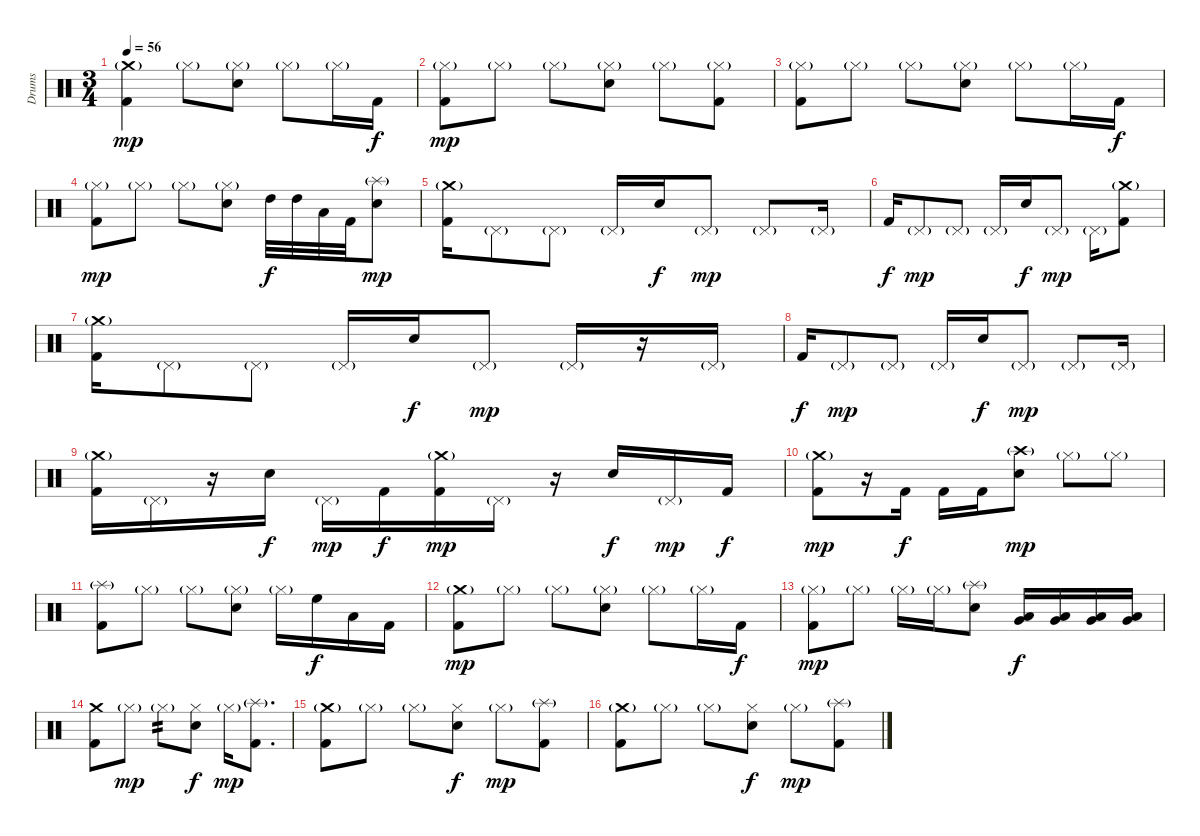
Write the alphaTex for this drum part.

\track ("Drums" "Drums") {instrument percussion}
\staff {score}
\articulation defaults
\ts (3 4)
\tempo 56
\clef neutral
\ks c
("Crash medium (hit)"{g} "Kick (hit) 2").4{dy mp} "Hi-Hat (closed)"{g}.8 ("Hi-Hat (closed)"{g} "Electric Snare (hit)").8 "Hi-Hat (closed)"{g}.8 "Hi-Hat (closed)"{g}.16 "Kick (hit) 2".16{dy f} |
("Hi-Hat (closed)"{g} "Kick (hit) 2").8{dy mp} "Hi-Hat (closed)"{g}.8 "Hi-Hat (closed)"{g}.8 ("Hi-Hat (closed)"{g} "Electric Snare (hit)").8 "Hi-Hat (closed)"{g}.8 ("Hi-Hat (closed)"{g} "Kick (hit) 2").8 |
("Hi-Hat (closed)"{g} "Kick (hit) 2").8 "Hi-Hat (closed)"{g}.8 "Hi-Hat (closed)"{g}.8 ("Hi-Hat (closed)"{g} "Electric Snare (hit)").8 "Hi-Hat (closed)"{g}.8 "Hi-Hat (closed)"{g}.16 "Kick (hit) 2".16{dy f} |
("Hi-Hat (closed)"{g} "Kick (hit) 2").8{dy mp} "Hi-Hat (closed)"{g}.8 "Hi-Hat (closed)"{g}.8 ("Hi-Hat (closed)"{g} "Electric Snare (hit)").8 "High Tom (hit)".32{dy f} "High Tom (hit)".32 "Low Tom (hit)".32 "Kick (hit) 2".32 ("Splash (hit)"{g} "Electric Snare (hit)").8{dy mp} |
("Crash medium (hit)"{g} "Kick (hit) 2").16 "Pedal Hi-Hat (hit)"{g}.8 "Pedal Hi-Hat (hit)"{g}.8 "Pedal Hi-Hat (hit)"{g}.16 "Electric Snare (hit)".16{dy f} "Pedal Hi-Hat (hit)"{g}.8{dy mp} "Pedal Hi-Hat (hit)"{g}.8 "Pedal Hi-Hat (hit)"{g}.16 |
"Kick (hit) 2".16{dy f} "Pedal Hi-Hat (hit)"{g}.8{dy mp} "Pedal Hi-Hat (hit)"{g}.8 "Pedal Hi-Hat (hit)"{g}.16 "Electric Snare (hit)".16{dy f} "Pedal Hi-Hat (hit)"{g}.8{dy mp} "Pedal Hi-Hat (hit)"{g}.16 ("Crash medium (hit)"{g} "Kick (hit) 2").8 |
("Crash medium (hit)"{g} "Kick (hit) 2").16 "Pedal Hi-Hat (hit)"{g}.8 "Pedal Hi-Hat (hit)"{g}.8 "Pedal Hi-Hat (hit)"{g}.16 "Electric Snare (hit)".16{dy f} "Pedal Hi-Hat (hit)"{g}.8{dy mp} "Pedal Hi-Hat (hit)"{g}.16 r.16 "Pedal Hi-Hat (hit)"{g}.16 |
"Kick (hit) 2".16{dy f} "Pedal Hi-Hat (hit)"{g}.8{dy mp} "Pedal Hi-Hat (hit)"{g}.8 "Pedal Hi-Hat (hit)"{g}.16 "Electric Snare (hit)".16{dy f} "Pedal Hi-Hat (hit)"{g}.8{dy mp} "Pedal Hi-Hat (hit)"{g}.8 "Pedal Hi-Hat (hit)"{g}.16 |
("Crash medium (hit)"{g} "Kick (hit) 2").16 "Pedal Hi-Hat (hit)"{g}.16 r.16 "Electric Snare (hit)".16{dy f} "Pedal Hi-Hat (hit)"{g}.16{dy mp} "Kick (hit) 2".16{dy f} ("Crash medium (hit)"{g} "Kick (hit) 2").16{dy mp} "Pedal Hi-Hat (hit)"{g}.16 r.16 "Electric Snare (hit)".16{dy f} "Pedal Hi-Hat (hit)"{g}.16{dy mp} "Kick (hit) 2".16{dy f} |
("Crash medium (hit)"{g} "Kick (hit) 2").8{dy mp} r.16 "Kick (hit) 2".16{dy f} "Kick (hit) 2".16 "Kick (hit) 2".16 ("Crash high (hit)"{g} "Electric Snare (hit)").8{dy mp} "Hi-Hat (closed)"{g}.8 "Hi-Hat (closed)"{g}.8 |
("Splash (hit)"{g} "Kick (hit) 2").8 "Hi-Hat (closed)"{g}.8 "Hi-Hat (closed)"{g}.8 ("Hi-Hat (closed)"{g} "Electric Snare (hit)").8 "Hi-Hat (closed)"{g}.16 "High Floor Tom (hit)".16{dy f} "Low Tom (hit)".16 "Kick (hit) 2".16 |
("Crash medium (hit)"{g} "Kick (hit) 2").8{dy mp} "Hi-Hat (closed)"{g}.8 "Hi-Hat (closed)"{g}.8 ("Hi-Hat (closed)"{g} "Electric Snare (hit)").8 "Hi-Hat (closed)"{g}.8 "Hi-Hat (closed)"{g}.16 "Kick (hit) 2".16{dy f} |
("Hi-Hat (closed)"{g} "Kick (hit) 2").8{dy mp} "Hi-Hat (closed)"{g}.8 "Hi-Hat (closed)"{g}.16 "Hi-Hat (closed)"{g}.16 ("Splash (hit)"{g} "Electric Snare (hit)").8 ("Low Tom (hit)" "Very Low Tom (hit)").16{dy f} ("Low Tom (hit)" "Very Low Tom (hit)").16 ("Low Tom (hit)" "Very Low Tom (hit)").16 ("Low Tom (hit)" "Very Low Tom (hit)").16 |
("Crash medium (hit)" "Kick (hit) 2").8 "Hi-Hat (closed)"{g}.8{dy mp} "Hi-Hat (closed)"{g}.8{tp 2} ("Hi-Hat (closed)" "Electric Snare (hit)").8{dy f} "Hi-Hat (closed)"{g}.16{dy mp} ("Splash (hit)"{g} "Kick (hit) 2").8{d} |
("Crash medium (hit)"{g} "Kick (hit) 2").8 "Hi-Hat (closed)"{g}.8 "Hi-Hat (closed)"{g}.8 ("Hi-Hat (closed)" "Electric Snare (hit)").8{dy f} "Hi-Hat (closed)"{g}.8{dy mp} ("Splash (hit)"{g} "Kick (hit) 2").8 |
("Crash medium (hit)"{g} "Kick (hit) 2").8 "Hi-Hat (closed)"{g}.8 "Hi-Hat (closed)"{g}.8 ("Hi-Hat (closed)" "Electric Snare (hit)").8{dy f} "Hi-Hat (closed)"{g}.8{dy mp} ("Splash (hit)"{g} "Kick (hit) 2").8
